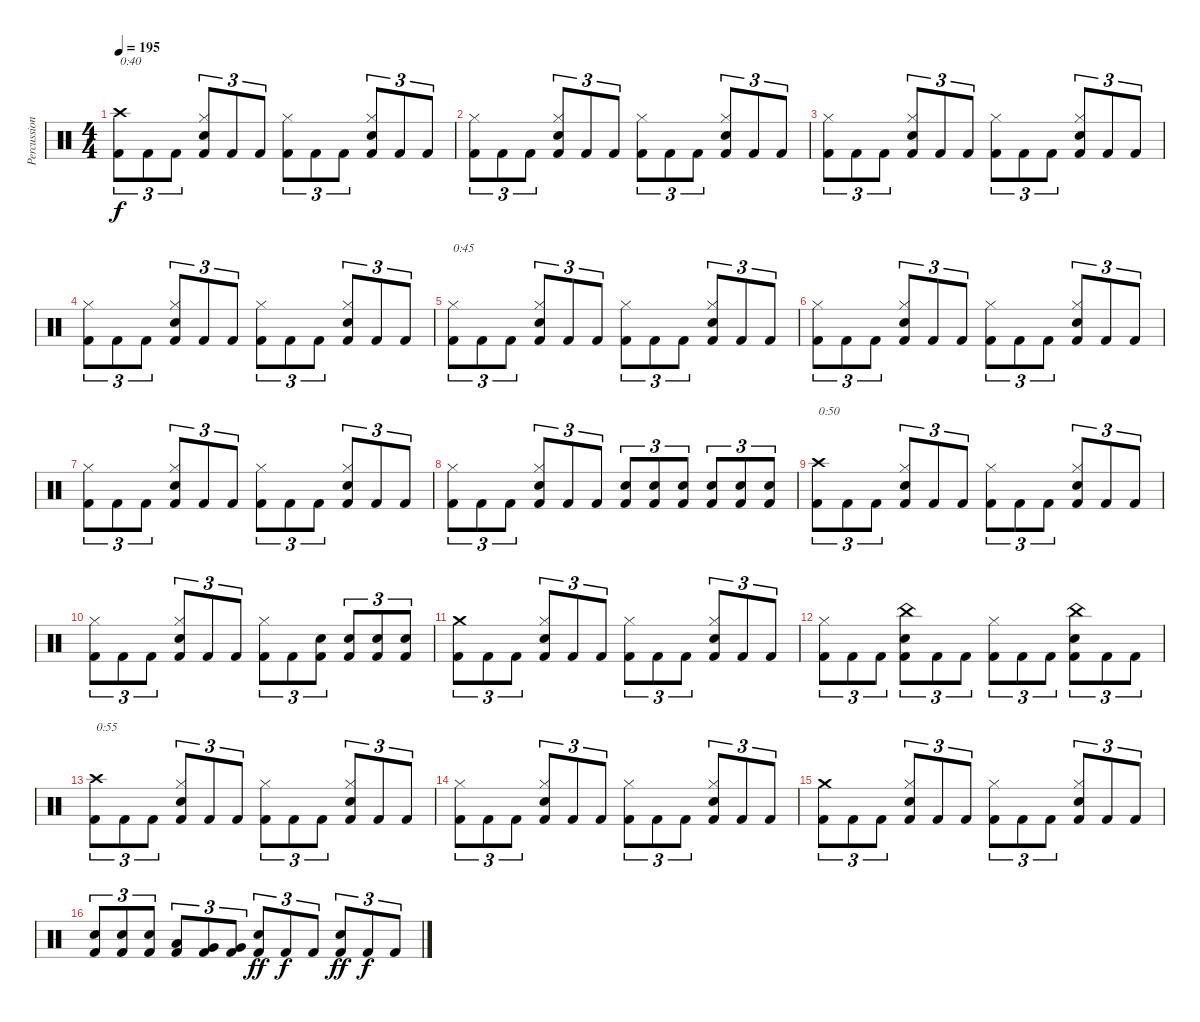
\track ("Percussion" "Percussion") {instrument percussion}
\staff {score}
\articulation defaults
\ts (4 4)
\tempo 195
\clef neutral
\ks c
("Crash high (hit)" "Kick (hit) 2").8{tu (3 2) txt "0:40" dy f} "Kick (hit) 2".8{tu (3 2)} "Kick (hit) 2".8{tu (3 2)} ("Hi-Hat (closed)" "Snare (hit) 2" "Kick (hit) 2").8{tu (3 2)} "Kick (hit) 2".8{tu (3 2)} "Kick (hit) 2".8{tu (3 2)} ("Hi-Hat (closed)" "Kick (hit) 2").8{tu (3 2)} "Kick (hit) 2".8{tu (3 2)} "Kick (hit) 2".8{tu (3 2)} ("Hi-Hat (closed)" "Snare (hit) 2" "Kick (hit) 2").8{tu (3 2)} "Kick (hit) 2".8{tu (3 2)} "Kick (hit) 2".8{tu (3 2)} |
("Hi-Hat (closed)" "Kick (hit) 2").8{tu (3 2)} "Kick (hit) 2".8{tu (3 2)} "Kick (hit) 2".8{tu (3 2)} ("Hi-Hat (closed)" "Snare (hit) 2" "Kick (hit) 2").8{tu (3 2)} "Kick (hit) 2".8{tu (3 2)} "Kick (hit) 2".8{tu (3 2)} ("Hi-Hat (closed)" "Kick (hit) 2").8{tu (3 2)} "Kick (hit) 2".8{tu (3 2)} "Kick (hit) 2".8{tu (3 2)} ("Hi-Hat (closed)" "Snare (hit) 2" "Kick (hit) 2").8{tu (3 2)} "Kick (hit) 2".8{tu (3 2)} "Kick (hit) 2".8{tu (3 2)} |
("Hi-Hat (closed)" "Kick (hit) 2").8{tu (3 2)} "Kick (hit) 2".8{tu (3 2)} "Kick (hit) 2".8{tu (3 2)} ("Hi-Hat (closed)" "Snare (hit) 2" "Kick (hit) 2").8{tu (3 2)} "Kick (hit) 2".8{tu (3 2)} "Kick (hit) 2".8{tu (3 2)} ("Hi-Hat (closed)" "Kick (hit) 2").8{tu (3 2)} "Kick (hit) 2".8{tu (3 2)} "Kick (hit) 2".8{tu (3 2)} ("Hi-Hat (closed)" "Snare (hit) 2" "Kick (hit) 2").8{tu (3 2)} "Kick (hit) 2".8{tu (3 2)} "Kick (hit) 2".8{tu (3 2)} |
("Hi-Hat (closed)" "Kick (hit) 2").8{tu (3 2)} "Kick (hit) 2".8{tu (3 2)} "Kick (hit) 2".8{tu (3 2)} ("Hi-Hat (closed)" "Snare (hit) 2" "Kick (hit) 2").8{tu (3 2)} "Kick (hit) 2".8{tu (3 2)} "Kick (hit) 2".8{tu (3 2)} ("Hi-Hat (closed)" "Kick (hit) 2").8{tu (3 2)} "Kick (hit) 2".8{tu (3 2)} "Kick (hit) 2".8{tu (3 2)} ("Hi-Hat (closed)" "Snare (hit) 2" "Kick (hit) 2").8{tu (3 2)} "Kick (hit) 2".8{tu (3 2)} "Kick (hit) 2".8{tu (3 2)} |
("Hi-Hat (closed)" "Kick (hit) 2").8{tu (3 2) txt "0:45"} "Kick (hit) 2".8{tu (3 2)} "Kick (hit) 2".8{tu (3 2)} ("Hi-Hat (closed)" "Snare (hit) 2" "Kick (hit) 2").8{tu (3 2)} "Kick (hit) 2".8{tu (3 2)} "Kick (hit) 2".8{tu (3 2)} ("Hi-Hat (closed)" "Kick (hit) 2").8{tu (3 2)} "Kick (hit) 2".8{tu (3 2)} "Kick (hit) 2".8{tu (3 2)} ("Hi-Hat (closed)" "Snare (hit) 2" "Kick (hit) 2").8{tu (3 2)} "Kick (hit) 2".8{tu (3 2)} "Kick (hit) 2".8{tu (3 2)} |
("Hi-Hat (closed)" "Kick (hit) 2").8{tu (3 2)} "Kick (hit) 2".8{tu (3 2)} "Kick (hit) 2".8{tu (3 2)} ("Hi-Hat (closed)" "Snare (hit) 2" "Kick (hit) 2").8{tu (3 2)} "Kick (hit) 2".8{tu (3 2)} "Kick (hit) 2".8{tu (3 2)} ("Hi-Hat (closed)" "Kick (hit) 2").8{tu (3 2)} "Kick (hit) 2".8{tu (3 2)} "Kick (hit) 2".8{tu (3 2)} ("Hi-Hat (closed)" "Snare (hit) 2" "Kick (hit) 2").8{tu (3 2)} "Kick (hit) 2".8{tu (3 2)} "Kick (hit) 2".8{tu (3 2)} |
("Hi-Hat (closed)" "Kick (hit) 2").8{tu (3 2)} "Kick (hit) 2".8{tu (3 2)} "Kick (hit) 2".8{tu (3 2)} ("Hi-Hat (closed)" "Snare (hit) 2" "Kick (hit) 2").8{tu (3 2)} "Kick (hit) 2".8{tu (3 2)} "Kick (hit) 2".8{tu (3 2)} ("Hi-Hat (closed)" "Kick (hit) 2").8{tu (3 2)} "Kick (hit) 2".8{tu (3 2)} "Kick (hit) 2".8{tu (3 2)} ("Hi-Hat (closed)" "Snare (hit) 2" "Kick (hit) 2").8{tu (3 2)} "Kick (hit) 2".8{tu (3 2)} "Kick (hit) 2".8{tu (3 2)} |
("Hi-Hat (closed)" "Kick (hit) 2").8{tu (3 2)} "Kick (hit) 2".8{tu (3 2)} "Kick (hit) 2".8{tu (3 2)} ("Hi-Hat (closed)" "Snare (hit) 2" "Kick (hit) 2").8{tu (3 2)} "Kick (hit) 2".8{tu (3 2)} "Kick (hit) 2".8{tu (3 2)} ("Snare (hit) 2" "Kick (hit) 2").8{tu (3 2)} ("Snare (hit) 2" "Kick (hit) 2").8{tu (3 2)} ("Snare (hit) 2" "Kick (hit) 2").8{tu (3 2)} ("Snare (hit) 2" "Kick (hit) 2").8{tu (3 2)} ("Snare (hit) 2" "Kick (hit) 2").8{tu (3 2)} ("Snare (hit) 2" "Kick (hit) 2").8{tu (3 2)} |
("Crash high (hit)" "Kick (hit) 2").8{tu (3 2) txt "0:50"} "Kick (hit) 2".8{tu (3 2)} "Kick (hit) 2".8{tu (3 2)} ("Hi-Hat (closed)" "Snare (hit) 2" "Kick (hit) 2").8{tu (3 2)} "Kick (hit) 2".8{tu (3 2)} "Kick (hit) 2".8{tu (3 2)} ("Hi-Hat (closed)" "Kick (hit) 2").8{tu (3 2)} "Kick (hit) 2".8{tu (3 2)} "Kick (hit) 2".8{tu (3 2)} ("Hi-Hat (closed)" "Snare (hit) 2" "Kick (hit) 2").8{tu (3 2)} "Kick (hit) 2".8{tu (3 2)} "Kick (hit) 2".8{tu (3 2)} |
("Hi-Hat (closed)" "Kick (hit) 2").8{tu (3 2)} "Kick (hit) 2".8{tu (3 2)} "Kick (hit) 2".8{tu (3 2)} ("Hi-Hat (closed)" "Snare (hit) 2" "Kick (hit) 2").8{tu (3 2)} "Kick (hit) 2".8{tu (3 2)} "Kick (hit) 2".8{tu (3 2)} ("Hi-Hat (closed)" "Kick (hit) 2").8{tu (3 2)} "Kick (hit) 2".8{tu (3 2)} ("Snare (hit) 2" "Kick (hit) 2").8{tu (3 2)} ("Snare (hit) 2" "Kick (hit) 2").8{tu (3 2)} ("Snare (hit) 2" "Kick (hit) 2").8{tu (3 2)} ("Snare (hit) 2" "Kick (hit) 2").8{tu (3 2)} |
("Crash medium (hit)" "Kick (hit) 2").8{tu (3 2)} "Kick (hit) 2".8{tu (3 2)} "Kick (hit) 2".8{tu (3 2)} ("Hi-Hat (closed)" "Snare (hit) 2" "Kick (hit) 2").8{tu (3 2)} "Kick (hit) 2".8{tu (3 2)} "Kick (hit) 2".8{tu (3 2)} ("Hi-Hat (closed)" "Kick (hit) 2").8{tu (3 2)} "Kick (hit) 2".8{tu (3 2)} "Kick (hit) 2".8{tu (3 2)} ("Hi-Hat (closed)" "Snare (hit) 2" "Kick (hit) 2").8{tu (3 2)} "Kick (hit) 2".8{tu (3 2)} "Kick (hit) 2".8{tu (3 2)} |
("Hi-Hat (closed)" "Kick (hit) 2").8{tu (3 2)} "Kick (hit) 2".8{tu (3 2)} "Kick (hit) 2".8{tu (3 2)} ("China (hit)" "Snare (hit) 2" "Kick (hit) 2").8{tu (3 2)} "Kick (hit) 2".8{tu (3 2)} "Kick (hit) 2".8{tu (3 2)} ("Hi-Hat (closed)" "Kick (hit) 2").8{tu (3 2)} "Kick (hit) 2".8{tu (3 2)} "Kick (hit) 2".8{tu (3 2)} ("China (hit)" "Snare (hit) 2" "Kick (hit) 2").8{tu (3 2)} "Kick (hit) 2".8{tu (3 2)} "Kick (hit) 2".8{tu (3 2)} |
("Crash high (hit)" "Kick (hit) 2").8{tu (3 2) txt "0:55"} "Kick (hit) 2".8{tu (3 2)} "Kick (hit) 2".8{tu (3 2)} ("Hi-Hat (closed)" "Snare (hit) 2" "Kick (hit) 2").8{tu (3 2)} "Kick (hit) 2".8{tu (3 2)} "Kick (hit) 2".8{tu (3 2)} ("Hi-Hat (closed)" "Kick (hit) 2").8{tu (3 2)} "Kick (hit) 2".8{tu (3 2)} "Kick (hit) 2".8{tu (3 2)} ("Hi-Hat (closed)" "Snare (hit) 2" "Kick (hit) 2").8{tu (3 2)} "Kick (hit) 2".8{tu (3 2)} "Kick (hit) 2".8{tu (3 2)} |
("Hi-Hat (closed)" "Kick (hit) 2").8{tu (3 2)} "Kick (hit) 2".8{tu (3 2)} "Kick (hit) 2".8{tu (3 2)} ("Hi-Hat (closed)" "Snare (hit) 2" "Kick (hit) 2").8{tu (3 2)} "Kick (hit) 2".8{tu (3 2)} "Kick (hit) 2".8{tu (3 2)} ("Hi-Hat (closed)" "Kick (hit) 2").8{tu (3 2)} "Kick (hit) 2".8{tu (3 2)} "Kick (hit) 2".8{tu (3 2)} ("Hi-Hat (closed)" "Snare (hit) 2" "Kick (hit) 2").8{tu (3 2)} "Kick (hit) 2".8{tu (3 2)} "Kick (hit) 2".8{tu (3 2)} |
("Crash medium (hit)" "Kick (hit) 2").8{tu (3 2)} "Kick (hit) 2".8{tu (3 2)} "Kick (hit) 2".8{tu (3 2)} ("Hi-Hat (closed)" "Snare (hit) 2" "Kick (hit) 2").8{tu (3 2)} "Kick (hit) 2".8{tu (3 2)} "Kick (hit) 2".8{tu (3 2)} ("Hi-Hat (closed)" "Kick (hit) 2").8{tu (3 2)} "Kick (hit) 2".8{tu (3 2)} "Kick (hit) 2".8{tu (3 2)} ("Hi-Hat (closed)" "Snare (hit) 2" "Kick (hit) 2").8{tu (3 2)} "Kick (hit) 2".8{tu (3 2)} "Kick (hit) 2".8{tu (3 2)} |
("Snare (hit) 2" "Kick (hit) 2").8{tu (3 2)} ("Snare (hit) 2" "Kick (hit) 2").8{tu (3 2)} ("Snare (hit) 2" "Kick (hit) 2").8{tu (3 2)} ("Low Tom (hit)" "Kick (hit) 2").8{tu (3 2)} ("Very Low Tom (hit)" "Kick (hit) 2").8{tu (3 2)} ("Very Low Tom (hit)" "Kick (hit) 2").8{tu (3 2)} ("Snare (hit) 2" "Kick (hit) 2").8{tu (3 2) dy ff} "Kick (hit) 2".8{tu (3 2) dy f} "Kick (hit) 2".8{tu (3 2)} ("Snare (hit) 2" "Kick (hit) 2").8{tu (3 2) dy ff} "Kick (hit) 2".8{tu (3 2) dy f} "Kick (hit) 2".8{tu (3 2)}
